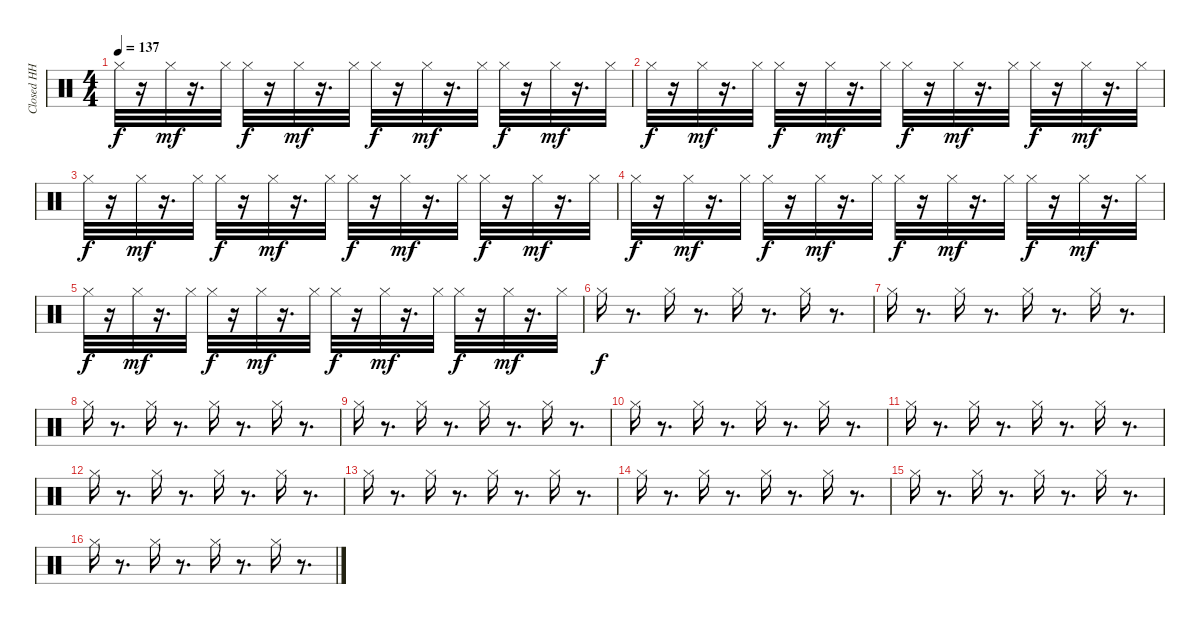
\track ("Closed HH" "Closed HH") {instrument percussion}
\staff {score}
\articulation defaults
\ts (4 4)
\tempo 137
\clef neutral
\ks c "Hi-Hat (closed)".32{dy f}
r.16 "Hi-Hat (closed)".32{dy mf} r.16{d} "Hi-Hat (closed)".32 "Hi-Hat (closed)".32{dy f} r.16 "Hi-Hat (closed)".32{dy mf} r.16{d} "Hi-Hat (closed)".32 "Hi-Hat (closed)".32{dy f} r.16 "Hi-Hat (closed)".32{dy mf} r.16{d} "Hi-Hat (closed)".32 "Hi-Hat (closed)".32{dy f} r.16 "Hi-Hat (closed)".32{dy mf} r.16{d} "Hi-Hat (closed)".32 |
"Hi-Hat (closed)".32{dy f} r.16 "Hi-Hat (closed)".32{dy mf} r.16{d} "Hi-Hat (closed)".32 "Hi-Hat (closed)".32{dy f} r.16 "Hi-Hat (closed)".32{dy mf} r.16{d} "Hi-Hat (closed)".32 "Hi-Hat (closed)".32{dy f} r.16 "Hi-Hat (closed)".32{dy mf} r.16{d} "Hi-Hat (closed)".32 "Hi-Hat (closed)".32{dy f} r.16 "Hi-Hat (closed)".32{dy mf} r.16{d} "Hi-Hat (closed)".32 |
"Hi-Hat (closed)".32{dy f} r.16 "Hi-Hat (closed)".32{dy mf} r.16{d} "Hi-Hat (closed)".32 "Hi-Hat (closed)".32{dy f} r.16 "Hi-Hat (closed)".32{dy mf} r.16{d} "Hi-Hat (closed)".32 "Hi-Hat (closed)".32{dy f} r.16 "Hi-Hat (closed)".32{dy mf} r.16{d} "Hi-Hat (closed)".32 "Hi-Hat (closed)".32{dy f} r.16 "Hi-Hat (closed)".32{dy mf} r.16{d} "Hi-Hat (closed)".32 |
"Hi-Hat (closed)".32{dy f} r.16 "Hi-Hat (closed)".32{dy mf} r.16{d} "Hi-Hat (closed)".32 "Hi-Hat (closed)".32{dy f} r.16 "Hi-Hat (closed)".32{dy mf} r.16{d} "Hi-Hat (closed)".32 "Hi-Hat (closed)".32{dy f} r.16 "Hi-Hat (closed)".32{dy mf} r.16{d} "Hi-Hat (closed)".32 "Hi-Hat (closed)".32{dy f} r.16 "Hi-Hat (closed)".32{dy mf} r.16{d} "Hi-Hat (closed)".32 |
"Hi-Hat (closed)".32{dy f} r.16 "Hi-Hat (closed)".32{dy mf} r.16{d} "Hi-Hat (closed)".32 "Hi-Hat (closed)".32{dy f} r.16 "Hi-Hat (closed)".32{dy mf} r.16{d} "Hi-Hat (closed)".32 "Hi-Hat (closed)".32{dy f} r.16 "Hi-Hat (closed)".32{dy mf} r.16{d} "Hi-Hat (closed)".32 "Hi-Hat (closed)".32{dy f} r.16 "Hi-Hat (closed)".32{dy mf} r.16{d} "Hi-Hat (closed)".32 |
"Hi-Hat (closed)".16{dy f} r.8{d} "Hi-Hat (closed)".16 r.8{d} "Hi-Hat (closed)".16 r.8{d} "Hi-Hat (closed)".16 r.8{d} |
"Hi-Hat (closed)".16 r.8{d} "Hi-Hat (closed)".16 r.8{d} "Hi-Hat (closed)".16 r.8{d} "Hi-Hat (closed)".16 r.8{d} |
"Hi-Hat (closed)".16 r.8{d} "Hi-Hat (closed)".16 r.8{d} "Hi-Hat (closed)".16 r.8{d} "Hi-Hat (closed)".16 r.8{d} |
"Hi-Hat (closed)".16 r.8{d} "Hi-Hat (closed)".16 r.8{d} "Hi-Hat (closed)".16 r.8{d} "Hi-Hat (closed)".16 r.8{d} |
"Hi-Hat (closed)".16 r.8{d} "Hi-Hat (closed)".16 r.8{d} "Hi-Hat (closed)".16 r.8{d} "Hi-Hat (closed)".16 r.8{d} |
"Hi-Hat (closed)".16 r.8{d} "Hi-Hat (closed)".16 r.8{d} "Hi-Hat (closed)".16 r.8{d} "Hi-Hat (closed)".16 r.8{d} |
"Hi-Hat (closed)".16 r.8{d} "Hi-Hat (closed)".16 r.8{d} "Hi-Hat (closed)".16 r.8{d} "Hi-Hat (closed)".16 r.8{d} |
"Hi-Hat (closed)".16 r.8{d} "Hi-Hat (closed)".16 r.8{d} "Hi-Hat (closed)".16 r.8{d} "Hi-Hat (closed)".16 r.8{d} |
"Hi-Hat (closed)".16 r.8{d} "Hi-Hat (closed)".16 r.8{d} "Hi-Hat (closed)".16 r.8{d} "Hi-Hat (closed)".16 r.8{d} |
"Hi-Hat (closed)".16 r.8{d} "Hi-Hat (closed)".16 r.8{d} "Hi-Hat (closed)".16 r.8{d} "Hi-Hat (closed)".16 r.8{d} |
"Hi-Hat (closed)".16 r.8{d} "Hi-Hat (closed)".16 r.8{d} "Hi-Hat (closed)".16 r.8{d} "Hi-Hat (closed)".16 r.8{d}
